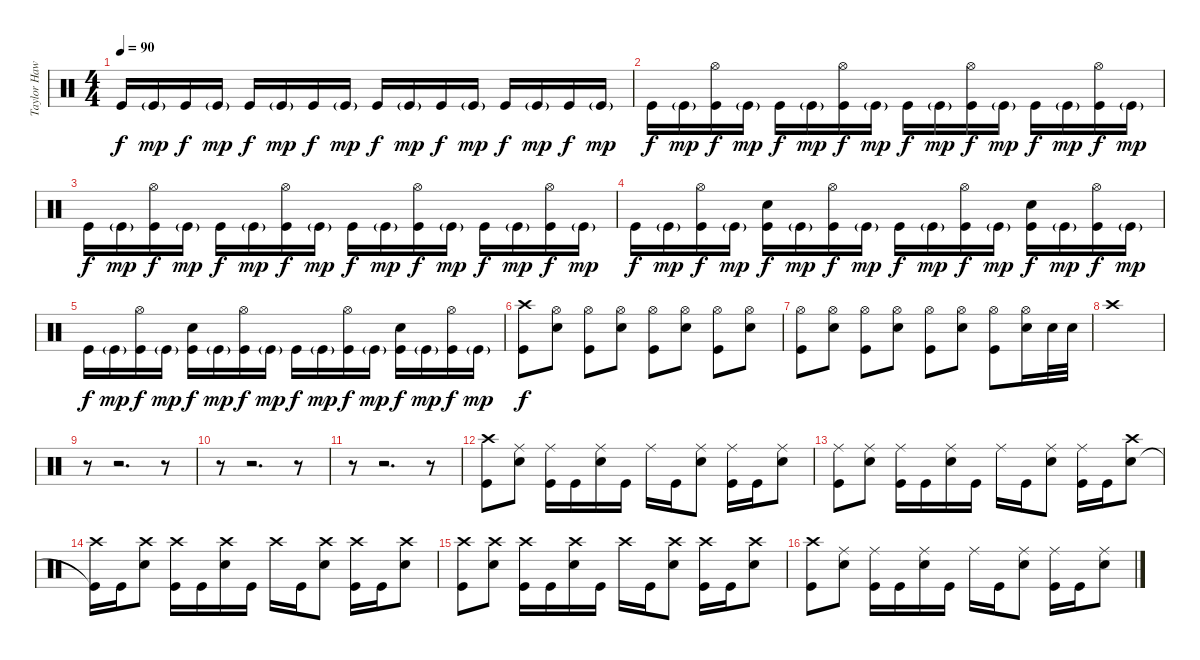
\track ("Taylor Hawkins - Drums" "Taylor Haw") {instrument percussion}
\staff {score}
\articulation defaults
\ts (4 4)
\tempo 90
\clef neutral
\ks c "Kick (hit)".16{dy f} "Kick (hit)"{g}.16{dy mp} "Kick (hit)".16{dy f} "Kick (hit)"{g}.16{dy mp} "Kick (hit)".16{dy f} "Kick (hit)"{g}.16{dy mp} "Kick (hit)".16{dy f} "Kick (hit)"{g}.16{dy mp} "Kick (hit)".16{dy f} "Kick (hit)"{g}.16{dy mp} "Kick (hit)".16{dy f} "Kick (hit)"{g}.16{dy mp} "Kick (hit)".16{dy f} "Kick (hit)"{g}.16{dy mp} "Kick (hit)".16{dy f} "Kick (hit)"{g}.16{dy mp}
|
"Kick (hit)".16{dy f} "Kick (hit)"{g}.16{dy mp} ("Hi-Hat (open)" "Kick (hit)").16{dy f} "Kick (hit)"{g}.16{dy mp} "Kick (hit)".16{dy f} "Kick (hit)"{g}.16{dy mp} ("Hi-Hat (open)" "Kick (hit)").16{dy f} "Kick (hit)"{g}.16{dy mp} "Kick (hit)".16{dy f} "Kick (hit)"{g}.16{dy mp} ("Hi-Hat (open)" "Kick (hit)").16{dy f} "Kick (hit)"{g}.16{dy mp} "Kick (hit)".16{dy f} "Kick (hit)"{g}.16{dy mp} ("Hi-Hat (open)" "Kick (hit)").16{dy f} "Kick (hit)"{g}.16{dy mp} |
"Kick (hit)".16{dy f} "Kick (hit)"{g}.16{dy mp} ("Hi-Hat (open)" "Kick (hit)").16{dy f} "Kick (hit)"{g}.16{dy mp} "Kick (hit)".16{dy f} "Kick (hit)"{g}.16{dy mp} ("Hi-Hat (open)" "Kick (hit)").16{dy f} "Kick (hit)"{g}.16{dy mp} "Kick (hit)".16{dy f} "Kick (hit)"{g}.16{dy mp} ("Hi-Hat (open)" "Kick (hit)").16{dy f} "Kick (hit)"{g}.16{dy mp} "Kick (hit)".16{dy f} "Kick (hit)"{g}.16{dy mp} ("Hi-Hat (open)" "Kick (hit)").16{dy f} "Kick (hit)"{g}.16{dy mp} |
"Kick (hit)".16{dy f} "Kick (hit)"{g}.16{dy mp} ("Hi-Hat (open)" "Kick (hit)").16{dy f} "Kick (hit)"{g}.16{dy mp} ("Electric Snare (hit)" "Kick (hit)").16{dy f} "Kick (hit)"{g}.16{dy mp} ("Hi-Hat (open)" "Kick (hit)").16{dy f} "Kick (hit)"{g}.16{dy mp} "Kick (hit)".16{dy f} "Kick (hit)"{g}.16{dy mp} ("Hi-Hat (open)" "Kick (hit)").16{dy f} "Kick (hit)"{g}.16{dy mp} ("Electric Snare (hit)" "Kick (hit)").16{dy f} "Kick (hit)"{g}.16{dy mp} ("Hi-Hat (open)" "Kick (hit)").16{dy f} "Kick (hit)"{g}.16{dy mp} |
"Kick (hit)".16{dy f} "Kick (hit)"{g}.16{dy mp} ("Hi-Hat (open)" "Kick (hit)").16{dy f} "Kick (hit)"{g}.16{dy mp} ("Electric Snare (hit)" "Kick (hit)").16{dy f} "Kick (hit)"{g}.16{dy mp} ("Hi-Hat (open)" "Kick (hit)").16{dy f} "Kick (hit)"{g}.16{dy mp} "Kick (hit)".16{dy f} "Kick (hit)"{g}.16{dy mp} ("Hi-Hat (open)" "Kick (hit)").16{dy f} "Kick (hit)"{g}.16{dy mp} ("Electric Snare (hit)" "Kick (hit)").16{dy f} "Kick (hit)"{g}.16{dy mp} ("Hi-Hat (open)" "Kick (hit)").16{dy f} "Kick (hit)"{g}.16{dy mp} |
("Crash high (hit)" "Kick (hit)").8{dy f} ("Hi-Hat (open)" "Snare (hit) 2").8 ("Hi-Hat (open)" "Kick (hit)").8 ("Hi-Hat (open)" "Snare (hit) 2").8 ("Hi-Hat (open)" "Kick (hit)").8 ("Hi-Hat (open)" "Snare (hit) 2").8 ("Hi-Hat (open)" "Kick (hit)").8 ("Hi-Hat (open)" "Snare (hit) 2").8 |
("Hi-Hat (open)" "Kick (hit)").8 ("Hi-Hat (open)" "Snare (hit) 2").8 ("Hi-Hat (open)" "Kick (hit)").8 ("Hi-Hat (open)" "Snare (hit) 2").8 ("Hi-Hat (open)" "Kick (hit)").8 ("Hi-Hat (open)" "Snare (hit) 2").8 ("Hi-Hat (open)" "Kick (hit)").8 ("Hi-Hat (open)" "Snare (hit) 2").16 "Snare (hit) 2".32 "Snare (hit) 2".32 |
"Crash high (hit)".1 |
r.8 r.2{d} r.8 |
r.8 r.2{d} r.8 |
r.8 r.2{d} r.8 |
("Crash high (hit)" "Kick (hit)").8 ("Ride (middle)" "Electric Snare (hit)").8 ("Ride (middle)" "Kick (hit)").16 "Kick (hit)".16 ("Ride (middle)" "Electric Snare (hit)").16 "Kick (hit)".16 "Ride (middle)".16 "Kick (hit)".16 ("Ride (middle)" "Electric Snare (hit)").8 ("Ride (middle)" "Kick (hit)").16 "Kick (hit)".16 ("Ride (middle)" "Snare (hit) 2").8 |
("Ride (middle)" "Kick (hit)").8 ("Ride (middle)" "Electric Snare (hit)").8 ("Ride (middle)" "Kick (hit)").16 "Kick (hit)".16 ("Ride (middle)" "Electric Snare (hit)").16 "Kick (hit)".16 "Ride (middle)".16 "Kick (hit)".16 ("Ride (middle)" "Electric Snare (hit)").8 ("Ride (middle)" "Kick (hit)").16 "Kick (hit)".16 ("Crash high (hit)" "Snare (hit) 2").8 |
("Crash high (hit)" "Kick (hit)"{t}).16 "Kick (hit)".16 ("Crash high (hit)" "Electric Snare (hit)").8 ("Crash high (hit)" "Kick (hit)").16 "Kick (hit)".16 ("Crash high (hit)" "Electric Snare (hit)").16 "Kick (hit)".16 "Crash high (hit)".16 "Kick (hit)".16 ("Crash high (hit)" "Electric Snare (hit)").8 ("Crash high (hit)" "Kick (hit)").16 "Kick (hit)".16 ("Crash high (hit)" "Snare (hit) 2").8 |
("Crash high (hit)" "Kick (hit)").8 ("Crash high (hit)" "Electric Snare (hit)").8 ("Crash high (hit)" "Kick (hit)").16 "Kick (hit)".16 ("Crash high (hit)" "Electric Snare (hit)").16 "Kick (hit)".16 "Crash high (hit)".16 "Kick (hit)".16 ("Crash high (hit)" "Electric Snare (hit)").8 ("Crash high (hit)" "Kick (hit)").16 "Kick (hit)".16 ("Crash high (hit)" "Electric Snare (hit)").8 |
("Crash high (hit)" "Kick (hit)").8 ("Ride (middle)" "Electric Snare (hit)").8 ("Ride (middle)" "Kick (hit)").16 "Kick (hit)".16 ("Ride (middle)" "Electric Snare (hit)").16 "Kick (hit)".16 "Ride (middle)".16 "Kick (hit)".16 ("Ride (middle)" "Electric Snare (hit)").8 ("Ride (middle)" "Kick (hit)").16 "Kick (hit)".16 ("Ride (middle)" "Snare (hit) 2").8
